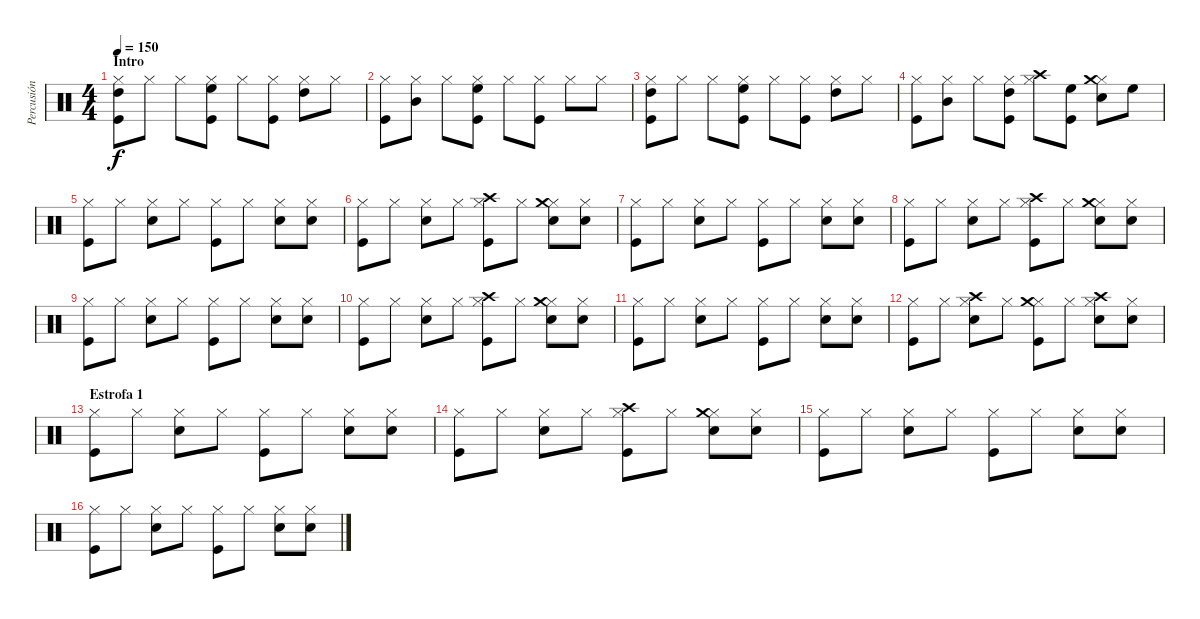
\track ("Percusión" "Percusión") {instrument percussion}
\staff {score}
\articulation defaults
\ts (4 4)
\section ("" "Intro")
\tempo 150
\clef neutral
\ks c
("Hi-Hat (closed)" "High Tom (hit)" "Kick (hit)").8{dy f} "Hi-Hat (closed)".8 "Hi-Hat (closed)".8 ("Hi-Hat (closed)" "High Floor Tom (hit)" "Kick (hit)").8 "Hi-Hat (closed)".8 ("Hi-Hat (closed)" "Kick (hit)").8 ("Hi-Hat (closed)" "High Tom (hit)").8 "Hi-Hat (closed)".8 |
("Hi-Hat (closed)" "Kick (hit)").8 ("Hi-Hat (closed)" "Mid Tom (hit)").8 "Hi-Hat (closed)".8 ("Hi-Hat (closed)" "High Floor Tom (hit)" "Kick (hit)").8 "Hi-Hat (closed)".8 ("Hi-Hat (closed)" "Kick (hit)").8 "Hi-Hat (closed)".8 "Hi-Hat (closed)".8 |
("Hi-Hat (closed)" "High Tom (hit)" "Kick (hit)").8 "Hi-Hat (closed)".8 "Hi-Hat (closed)".8 ("Hi-Hat (closed)" "High Floor Tom (hit)" "Kick (hit)").8 "Hi-Hat (closed)".8 ("Hi-Hat (closed)" "Kick (hit)").8 ("Hi-Hat (closed)" "High Tom (hit)").8 "Hi-Hat (closed)".8 |
("Hi-Hat (closed)" "Kick (hit)").8 ("Hi-Hat (closed)" "Mid Tom (hit)").8 "Hi-Hat (closed)".8 ("Hi-Hat (closed)" "High Tom (hit)" "Kick (hit)").8 ("Hi-Hat (closed)" "Crash high (hit)").8 ("High Floor Tom (hit)" "Kick (hit)").8 ("Hi-Hat (closed)" "Snare (hit) 2" "Crash medium (hit)").8 "High Floor Tom (hit)".8 |
("Hi-Hat (closed)" "Kick (hit)").8 "Hi-Hat (closed)".8 ("Hi-Hat (closed)" "Snare (hit) 2").8 "Hi-Hat (closed)".8 ("Hi-Hat (closed)" "Kick (hit)").8 "Hi-Hat (closed)".8 ("Hi-Hat (closed)" "Snare (hit) 2").8 ("Hi-Hat (closed)" "Snare (hit) 2").8 |
("Hi-Hat (closed)" "Kick (hit)").8 "Hi-Hat (closed)".8 ("Hi-Hat (closed)" "Snare (hit) 2").8 "Hi-Hat (closed)".8 ("Hi-Hat (closed)" "Kick (hit)" "Crash high (hit)").8 "Hi-Hat (closed)".8 ("Hi-Hat (closed)" "Snare (hit) 2" "Crash medium (hit)").8 ("Hi-Hat (closed)" "Snare (hit) 2").8 |
("Hi-Hat (closed)" "Kick (hit)").8 "Hi-Hat (closed)".8 ("Hi-Hat (closed)" "Snare (hit) 2").8 "Hi-Hat (closed)".8 ("Hi-Hat (closed)" "Kick (hit)").8 "Hi-Hat (closed)".8 ("Hi-Hat (closed)" "Snare (hit) 2").8 ("Hi-Hat (closed)" "Snare (hit) 2").8 |
("Hi-Hat (closed)" "Kick (hit)").8 "Hi-Hat (closed)".8 ("Hi-Hat (closed)" "Snare (hit) 2").8 "Hi-Hat (closed)".8 ("Hi-Hat (closed)" "Kick (hit)" "Crash high (hit)").8 "Hi-Hat (closed)".8 ("Hi-Hat (closed)" "Snare (hit) 2" "Crash medium (hit)").8 ("Hi-Hat (closed)" "Snare (hit) 2").8 |
("Hi-Hat (closed)" "Kick (hit)").8 "Hi-Hat (closed)".8 ("Hi-Hat (closed)" "Snare (hit) 2").8 "Hi-Hat (closed)".8 ("Hi-Hat (closed)" "Kick (hit)").8 "Hi-Hat (closed)".8 ("Hi-Hat (closed)" "Snare (hit) 2").8 ("Hi-Hat (closed)" "Snare (hit) 2").8 |
("Hi-Hat (closed)" "Kick (hit)").8 "Hi-Hat (closed)".8 ("Hi-Hat (closed)" "Snare (hit) 2").8 "Hi-Hat (closed)".8 ("Hi-Hat (closed)" "Kick (hit)" "Crash high (hit)").8 "Hi-Hat (closed)".8 ("Hi-Hat (closed)" "Snare (hit) 2" "Crash medium (hit)").8 ("Hi-Hat (closed)" "Snare (hit) 2").8 |
("Hi-Hat (closed)" "Kick (hit)").8 "Hi-Hat (closed)".8 ("Hi-Hat (closed)" "Snare (hit) 2").8 "Hi-Hat (closed)".8 ("Hi-Hat (closed)" "Kick (hit)").8 "Hi-Hat (closed)".8 ("Hi-Hat (closed)" "Snare (hit) 2").8 ("Hi-Hat (closed)" "Snare (hit) 2").8 |
("Hi-Hat (closed)" "Kick (hit)").8 "Hi-Hat (closed)".8 ("Hi-Hat (closed)" "Snare (hit) 2" "Crash high (hit)").8 "Hi-Hat (closed)".8 ("Hi-Hat (closed)" "Kick (hit)" "Crash medium (hit)").8 "Hi-Hat (closed)".8 ("Hi-Hat (closed)" "Snare (hit) 2" "Crash high (hit)").8 ("Hi-Hat (closed)" "Snare (hit) 2").8 |
\section ("" "Estrofa 1")
("Hi-Hat (closed)" "Kick (hit)").8 "Hi-Hat (closed)".8 ("Hi-Hat (closed)" "Snare (hit) 2").8 "Hi-Hat (closed)".8 ("Hi-Hat (closed)" "Kick (hit)").8 "Hi-Hat (closed)".8 ("Hi-Hat (closed)" "Snare (hit) 2").8 ("Hi-Hat (closed)" "Snare (hit) 2").8 |
("Hi-Hat (closed)" "Kick (hit)").8 "Hi-Hat (closed)".8 ("Hi-Hat (closed)" "Snare (hit) 2").8 "Hi-Hat (closed)".8 ("Hi-Hat (closed)" "Kick (hit)" "Crash high (hit)").8 "Hi-Hat (closed)".8 ("Hi-Hat (closed)" "Snare (hit) 2" "Crash medium (hit)").8 ("Hi-Hat (closed)" "Snare (hit) 2").8 |
("Hi-Hat (closed)" "Kick (hit)").8 "Hi-Hat (closed)".8 ("Hi-Hat (closed)" "Snare (hit) 2").8 "Hi-Hat (closed)".8 ("Hi-Hat (closed)" "Kick (hit)").8 "Hi-Hat (closed)".8 ("Hi-Hat (closed)" "Snare (hit) 2").8 ("Hi-Hat (closed)" "Snare (hit) 2").8 |
("Hi-Hat (closed)" "Kick (hit)").8 "Hi-Hat (closed)".8 ("Hi-Hat (closed)" "Snare (hit) 2").8 "Hi-Hat (closed)".8 ("Hi-Hat (closed)" "Kick (hit)").8 "Hi-Hat (closed)".8 ("Hi-Hat (closed)" "Snare (hit) 2").8 ("Hi-Hat (closed)" "Snare (hit) 2").8
